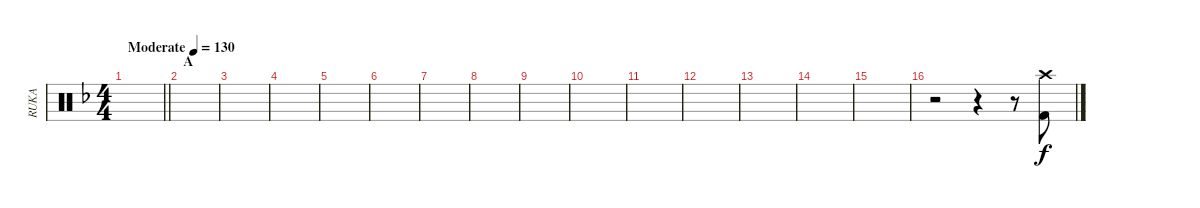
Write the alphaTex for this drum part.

\track ("RUKA" "RUKA") {instrument percussion}
\staff {score}
\articulation defaults
\ts (4 4)
\tempo (130 "Moderate")
\clef neutral
\barLineRight lightlight
\ks f
|
\section ("" "A")
|
|
|
|
|
|
|
|
|
|
|
|
|
|
r.2 r.4 r.8 ("Crash high (hit)" "Kick (hit) 2").8
